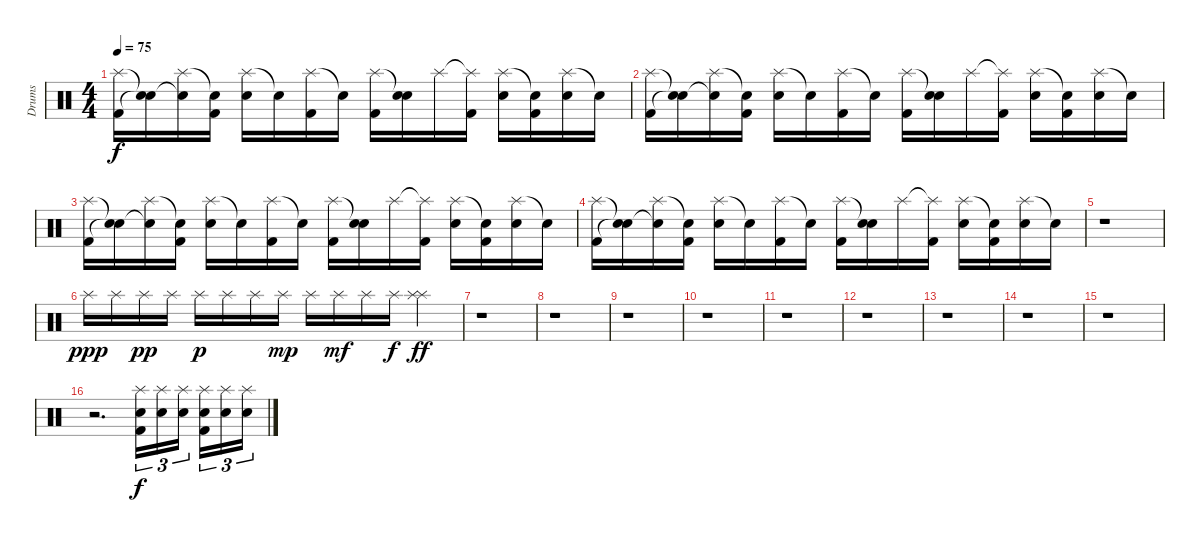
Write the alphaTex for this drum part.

\track ("Drums" "Drums") {instrument percussion}
\staff {score}
\articulation defaults
\ts (4 4)
\tempo 75
\clef neutral
\ks c
("Splash (hit)" "Kick (hit) 2").16{dy f} ("Snare (hit)"{t} "Snare (hit)"{t}).16 ("Splash (hit)" "Snare (hit)"{t}).16 ("Snare (hit)"{t} "Kick (hit) 2").16 ("Splash (hit)" "Electric Snare (hit)").16 "Snare (hit)"{t}.16 ("Splash (hit)" "Kick (hit) 2").16 "Snare (hit)"{t}.16 ("Splash (hit)" "Kick (hit) 2").16 ("Snare (hit)"{t} "Electric Snare (hit)").16 "Splash (hit)".16 ("Splash (hit)"{t} "Kick (hit) 2").16 ("Splash (hit)" "Electric Snare (hit)").16 ("Snare (hit)"{t} "Kick (hit) 2").16 ("Splash (hit)" "Electric Snare (hit)").16 "Snare (hit)"{t}.16 |
("Splash (hit)" "Kick (hit) 2").16 ("Snare (hit)"{t} "Snare (hit)"{t}).16 ("Splash (hit)" "Snare (hit)"{t}).16 ("Snare (hit)"{t} "Kick (hit) 2").16 ("Splash (hit)" "Electric Snare (hit)").16 "Snare (hit)"{t}.16 ("Splash (hit)" "Kick (hit) 2").16 "Snare (hit)"{t}.16 ("Splash (hit)" "Kick (hit) 2").16 ("Snare (hit)"{t} "Electric Snare (hit)").16 "Splash (hit)".16 ("Splash (hit)"{t} "Kick (hit) 2").16 ("Splash (hit)" "Electric Snare (hit)").16 ("Snare (hit)"{t} "Kick (hit) 2").16 ("Splash (hit)" "Electric Snare (hit)").16 "Snare (hit)"{t}.16 |
("Splash (hit)" "Kick (hit) 2").16 ("Snare (hit)"{t} "Snare (hit)"{t}).16 ("Splash (hit)" "Snare (hit)"{t}).16 ("Snare (hit)"{t} "Kick (hit) 2").16 ("Splash (hit)" "Electric Snare (hit)").16 "Snare (hit)"{t}.16 ("Splash (hit)" "Kick (hit) 2").16 "Snare (hit)"{t}.16 ("Splash (hit)" "Kick (hit) 2").16 ("Snare (hit)"{t} "Electric Snare (hit)").16 "Splash (hit)".16 ("Splash (hit)"{t} "Kick (hit) 2").16 ("Splash (hit)" "Electric Snare (hit)").16 ("Snare (hit)"{t} "Kick (hit) 2").16 ("Splash (hit)" "Electric Snare (hit)").16 "Snare (hit)"{t}.16 |
("Splash (hit)" "Kick (hit) 2").16 ("Snare (hit)"{t} "Snare (hit)"{t}).16 ("Splash (hit)" "Snare (hit)"{t}).16 ("Snare (hit)"{t} "Kick (hit) 2").16 ("Splash (hit)" "Electric Snare (hit)").16 "Snare (hit)"{t}.16 ("Splash (hit)" "Kick (hit) 2").16 "Snare (hit)"{t}.16 ("Splash (hit)" "Kick (hit) 2").16 ("Snare (hit)"{t} "Electric Snare (hit)").16 "Splash (hit)".16 ("Splash (hit)"{t} "Kick (hit) 2").16 ("Splash (hit)" "Electric Snare (hit)").16 ("Snare (hit)"{t} "Kick (hit) 2").16 ("Splash (hit)" "Electric Snare (hit)").16 "Snare (hit)"{t}.16 |
r.1 |
"Splash (hit)".16{dy ppp} "Splash (hit)".16 "Splash (hit)".16{dy pp} "Splash (hit)".16 "Splash (hit)".16{dy p} "Splash (hit)".16 "Splash (hit)".16 "Splash (hit)".16{dy mp} "Splash (hit)".16 "Splash (hit)".16{dy mf} "Splash (hit)".16 "Splash (hit)".16{dy f} ("Splash (hit)" "Splash (hit)").4{dy ff} |
r.1 |
r.1 |
r.1 |
r.1 |
r.1 |
r.1 |
r.1 |
r.1 |
r.1 |
r.2{d} ("Splash (hit)" "Kick (hit) 2" "Snare (hit) 2").16{tu (3 2) dy f} ("Splash (hit)" "Snare (hit) 2").16{tu (3 2)} ("Splash (hit)" "Snare (hit) 2").16{tu (3 2) beam splitsecondary} ("Splash (hit)" "Kick (hit) 2" "Snare (hit) 2").16{tu (3 2)} ("Splash (hit)" "Snare (hit) 2").16{tu (3 2)} ("Splash (hit)" "Snare (hit) 2").16{tu (3 2)}
